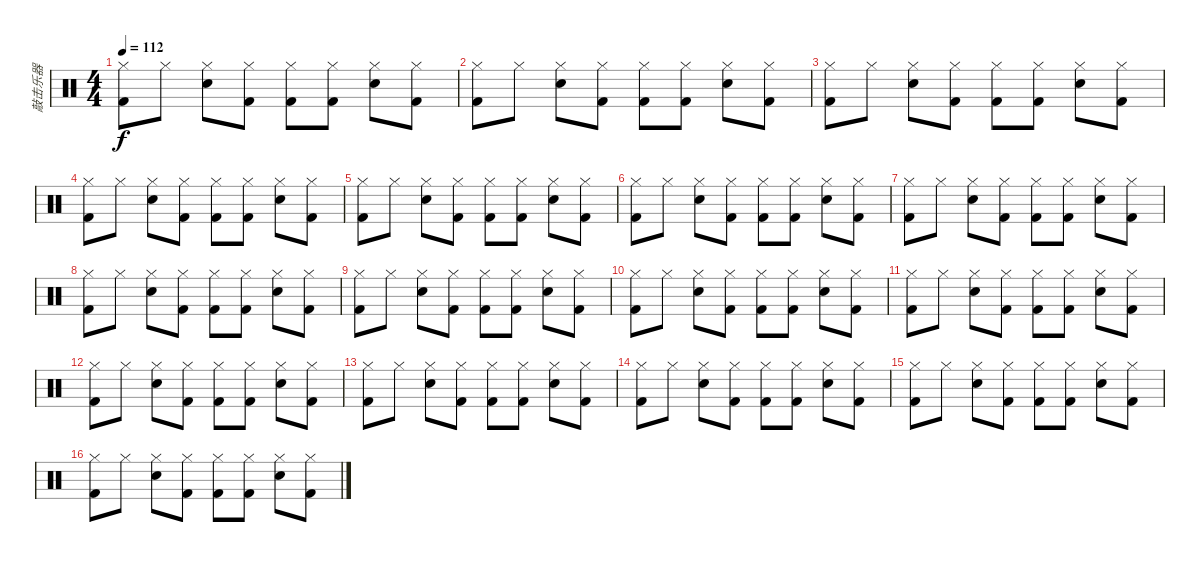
\track ("敲击乐器" "敲击乐器") {instrument percussion}
\staff {score}
\articulation defaults
\ts (4 4)
\tempo 112
\clef neutral
\ks c
("Hi-Hat (closed)" "Kick (hit) 2").8{dy f} "Hi-Hat (closed)".8 ("Hi-Hat (closed)" "Snare (hit) 2").8 ("Hi-Hat (closed)" "Kick (hit) 2").8 ("Hi-Hat (closed)" "Kick (hit) 2").8 ("Hi-Hat (closed)" "Kick (hit) 2").8 ("Hi-Hat (closed)" "Snare (hit) 2").8 ("Hi-Hat (closed)" "Kick (hit) 2").8 |
("Hi-Hat (closed)" "Kick (hit) 2").8 "Hi-Hat (closed)".8 ("Hi-Hat (closed)" "Snare (hit) 2").8 ("Hi-Hat (closed)" "Kick (hit) 2").8 ("Hi-Hat (closed)" "Kick (hit) 2").8 ("Hi-Hat (closed)" "Kick (hit) 2").8 ("Hi-Hat (closed)" "Snare (hit) 2").8 ("Hi-Hat (closed)" "Kick (hit) 2").8 |
("Hi-Hat (closed)" "Kick (hit) 2").8 "Hi-Hat (closed)".8 ("Hi-Hat (closed)" "Snare (hit) 2").8 ("Hi-Hat (closed)" "Kick (hit) 2").8 ("Hi-Hat (closed)" "Kick (hit) 2").8 ("Hi-Hat (closed)" "Kick (hit) 2").8 ("Hi-Hat (closed)" "Snare (hit) 2").8 ("Hi-Hat (closed)" "Kick (hit) 2").8 |
("Hi-Hat (closed)" "Kick (hit) 2").8 "Hi-Hat (closed)".8 ("Hi-Hat (closed)" "Snare (hit) 2").8 ("Hi-Hat (closed)" "Kick (hit) 2").8 ("Hi-Hat (closed)" "Kick (hit) 2").8 ("Hi-Hat (closed)" "Kick (hit) 2").8 ("Hi-Hat (closed)" "Snare (hit) 2").8 ("Hi-Hat (closed)" "Kick (hit) 2").8 |
("Hi-Hat (closed)" "Kick (hit) 2").8 "Hi-Hat (closed)".8 ("Hi-Hat (closed)" "Snare (hit) 2").8 ("Hi-Hat (closed)" "Kick (hit) 2").8 ("Hi-Hat (closed)" "Kick (hit) 2").8 ("Hi-Hat (closed)" "Kick (hit) 2").8 ("Hi-Hat (closed)" "Snare (hit) 2").8 ("Hi-Hat (closed)" "Kick (hit) 2").8 |
("Hi-Hat (closed)" "Kick (hit) 2").8 "Hi-Hat (closed)".8 ("Hi-Hat (closed)" "Snare (hit) 2").8 ("Hi-Hat (closed)" "Kick (hit) 2").8 ("Hi-Hat (closed)" "Kick (hit) 2").8 ("Hi-Hat (closed)" "Kick (hit) 2").8 ("Hi-Hat (closed)" "Snare (hit) 2").8 ("Hi-Hat (closed)" "Kick (hit) 2").8 |
("Hi-Hat (closed)" "Kick (hit) 2").8 "Hi-Hat (closed)".8 ("Hi-Hat (closed)" "Snare (hit) 2").8 ("Hi-Hat (closed)" "Kick (hit) 2").8 ("Hi-Hat (closed)" "Kick (hit) 2").8 ("Hi-Hat (closed)" "Kick (hit) 2").8 ("Hi-Hat (closed)" "Snare (hit) 2").8 ("Hi-Hat (closed)" "Kick (hit) 2").8 |
("Hi-Hat (closed)" "Kick (hit) 2").8 "Hi-Hat (closed)".8 ("Hi-Hat (closed)" "Snare (hit) 2").8 ("Hi-Hat (closed)" "Kick (hit) 2").8 ("Hi-Hat (closed)" "Kick (hit) 2").8 ("Hi-Hat (closed)" "Kick (hit) 2").8 ("Hi-Hat (closed)" "Snare (hit) 2").8 ("Hi-Hat (closed)" "Kick (hit) 2").8 |
("Hi-Hat (closed)" "Kick (hit) 2").8 "Hi-Hat (closed)".8 ("Hi-Hat (closed)" "Snare (hit) 2").8 ("Hi-Hat (closed)" "Kick (hit) 2").8 ("Hi-Hat (closed)" "Kick (hit) 2").8 ("Hi-Hat (closed)" "Kick (hit) 2").8 ("Hi-Hat (closed)" "Snare (hit) 2").8 ("Hi-Hat (closed)" "Kick (hit) 2").8 |
("Hi-Hat (closed)" "Kick (hit) 2").8 "Hi-Hat (closed)".8 ("Hi-Hat (closed)" "Snare (hit) 2").8 ("Hi-Hat (closed)" "Kick (hit) 2").8 ("Hi-Hat (closed)" "Kick (hit) 2").8 ("Hi-Hat (closed)" "Kick (hit) 2").8 ("Hi-Hat (closed)" "Snare (hit) 2").8 ("Hi-Hat (closed)" "Kick (hit) 2").8 |
("Hi-Hat (closed)" "Kick (hit) 2").8 "Hi-Hat (closed)".8 ("Hi-Hat (closed)" "Snare (hit) 2").8 ("Hi-Hat (closed)" "Kick (hit) 2").8 ("Hi-Hat (closed)" "Kick (hit) 2").8 ("Hi-Hat (closed)" "Kick (hit) 2").8 ("Hi-Hat (closed)" "Snare (hit) 2").8 ("Hi-Hat (closed)" "Kick (hit) 2").8 |
("Hi-Hat (closed)" "Kick (hit) 2").8 "Hi-Hat (closed)".8 ("Hi-Hat (closed)" "Snare (hit) 2").8 ("Hi-Hat (closed)" "Kick (hit) 2").8 ("Hi-Hat (closed)" "Kick (hit) 2").8 ("Hi-Hat (closed)" "Kick (hit) 2").8 ("Hi-Hat (closed)" "Snare (hit) 2").8 ("Hi-Hat (closed)" "Kick (hit) 2").8 |
("Hi-Hat (closed)" "Kick (hit) 2").8 "Hi-Hat (closed)".8 ("Hi-Hat (closed)" "Snare (hit) 2").8 ("Hi-Hat (closed)" "Kick (hit) 2").8 ("Hi-Hat (closed)" "Kick (hit) 2").8 ("Hi-Hat (closed)" "Kick (hit) 2").8 ("Hi-Hat (closed)" "Snare (hit) 2").8 ("Hi-Hat (closed)" "Kick (hit) 2").8 |
("Hi-Hat (closed)" "Kick (hit) 2").8 "Hi-Hat (closed)".8 ("Hi-Hat (closed)" "Snare (hit) 2").8 ("Hi-Hat (closed)" "Kick (hit) 2").8 ("Hi-Hat (closed)" "Kick (hit) 2").8 ("Hi-Hat (closed)" "Kick (hit) 2").8 ("Hi-Hat (closed)" "Snare (hit) 2").8 ("Hi-Hat (closed)" "Kick (hit) 2").8 |
("Hi-Hat (closed)" "Kick (hit) 2").8 "Hi-Hat (closed)".8 ("Hi-Hat (closed)" "Snare (hit) 2").8 ("Hi-Hat (closed)" "Kick (hit) 2").8 ("Hi-Hat (closed)" "Kick (hit) 2").8 ("Hi-Hat (closed)" "Kick (hit) 2").8 ("Hi-Hat (closed)" "Snare (hit) 2").8 ("Hi-Hat (closed)" "Kick (hit) 2").8 |
("Hi-Hat (closed)" "Kick (hit) 2").8 "Hi-Hat (closed)".8 ("Hi-Hat (closed)" "Snare (hit) 2").8 ("Hi-Hat (closed)" "Kick (hit) 2").8 ("Hi-Hat (closed)" "Kick (hit) 2").8 ("Hi-Hat (closed)" "Kick (hit) 2").8 ("Hi-Hat (closed)" "Snare (hit) 2").8 ("Hi-Hat (closed)" "Kick (hit) 2").8
